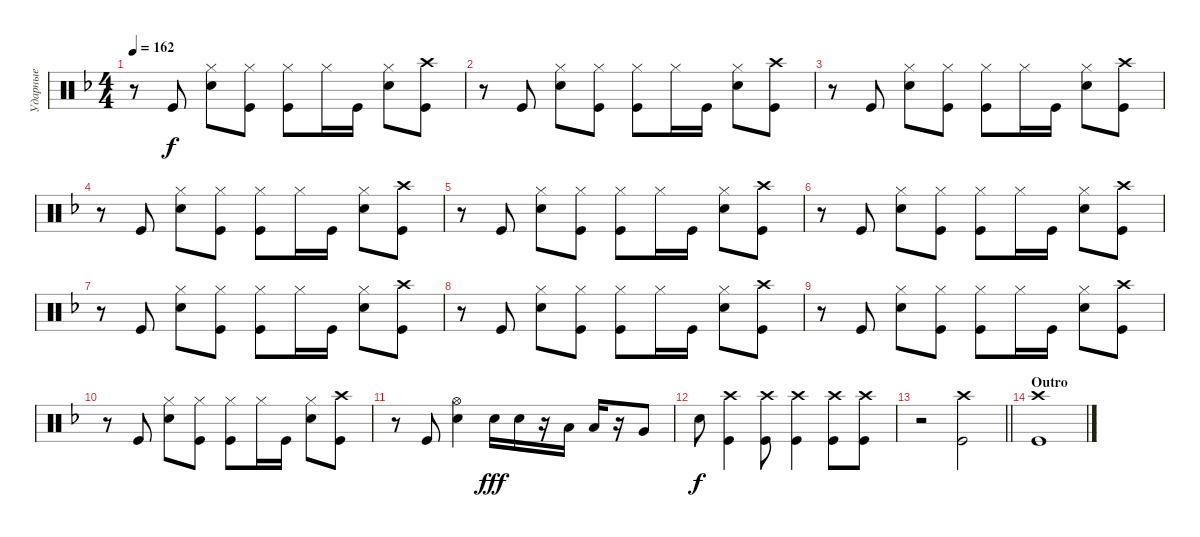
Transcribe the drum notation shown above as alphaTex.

\track ("Ударные" "Ударные") {instrument percussion}
\staff {score}
\articulation defaults
\ts (4 4)
\tempo 162
\clef neutral
\ks dminor
r.8{dy f} "Kick (hit)".8 ("Hi-Hat (closed)" "Snare (hit) 2").8 ("Hi-Hat (closed)" "Kick (hit)").8 ("Hi-Hat (closed)" "Kick (hit)").8 "Hi-Hat (closed)".16 "Kick (hit)".16 ("Hi-Hat (closed)" "Snare (hit) 2").8 ("Crash high (hit)" "Kick (hit)").8 |
r.8 "Kick (hit)".8 ("Hi-Hat (closed)" "Snare (hit) 2").8 ("Hi-Hat (closed)" "Kick (hit)").8 ("Hi-Hat (closed)" "Kick (hit)").8 "Hi-Hat (closed)".16 "Kick (hit)".16 ("Hi-Hat (closed)" "Snare (hit) 2").8 ("Crash high (hit)" "Kick (hit)").8 |
r.8 "Kick (hit)".8 ("Hi-Hat (closed)" "Snare (hit) 2").8 ("Hi-Hat (closed)" "Kick (hit)").8 ("Hi-Hat (closed)" "Kick (hit)").8 "Hi-Hat (closed)".16 "Kick (hit)".16 ("Hi-Hat (closed)" "Snare (hit) 2").8 ("Crash high (hit)" "Kick (hit)").8 |
r.8 "Kick (hit)".8 ("Hi-Hat (closed)" "Snare (hit) 2").8 ("Hi-Hat (closed)" "Kick (hit)").8 ("Hi-Hat (closed)" "Kick (hit)").8 "Hi-Hat (closed)".16 "Kick (hit)".16 ("Hi-Hat (closed)" "Snare (hit) 2").8 ("Crash high (hit)" "Kick (hit)").8 |
r.8 "Kick (hit)".8 ("Hi-Hat (closed)" "Snare (hit) 2").8 ("Hi-Hat (closed)" "Kick (hit)").8 ("Hi-Hat (closed)" "Kick (hit)").8 "Hi-Hat (closed)".16 "Kick (hit)".16 ("Hi-Hat (closed)" "Snare (hit) 2").8 ("Crash high (hit)" "Kick (hit)").8 |
r.8 "Kick (hit)".8 ("Hi-Hat (closed)" "Snare (hit) 2").8 ("Hi-Hat (closed)" "Kick (hit)").8 ("Hi-Hat (closed)" "Kick (hit)").8 "Hi-Hat (closed)".16 "Kick (hit)".16 ("Hi-Hat (closed)" "Snare (hit) 2").8 ("Crash high (hit)" "Kick (hit)").8 |
r.8 "Kick (hit)".8 ("Hi-Hat (closed)" "Snare (hit) 2").8 ("Hi-Hat (closed)" "Kick (hit)").8 ("Hi-Hat (closed)" "Kick (hit)").8 "Hi-Hat (closed)".16 "Kick (hit)".16 ("Hi-Hat (closed)" "Snare (hit) 2").8 ("Crash high (hit)" "Kick (hit)").8 |
r.8 "Kick (hit)".8 ("Hi-Hat (closed)" "Snare (hit) 2").8 ("Hi-Hat (closed)" "Kick (hit)").8 ("Hi-Hat (closed)" "Kick (hit)").8 "Hi-Hat (closed)".16 "Kick (hit)".16 ("Hi-Hat (closed)" "Snare (hit) 2").8 ("Crash high (hit)" "Kick (hit)").8 |
r.8 "Kick (hit)".8 ("Hi-Hat (closed)" "Snare (hit) 2").8 ("Hi-Hat (closed)" "Kick (hit)").8 ("Hi-Hat (closed)" "Kick (hit)").8 "Hi-Hat (closed)".16 "Kick (hit)".16 ("Hi-Hat (closed)" "Snare (hit) 2").8 ("Crash high (hit)" "Kick (hit)").8 |
r.8 "Kick (hit)".8 ("Hi-Hat (closed)" "Snare (hit) 2").8 ("Hi-Hat (closed)" "Kick (hit)").8 ("Hi-Hat (closed)" "Kick (hit)").8 "Hi-Hat (closed)".16 "Kick (hit)".16 ("Hi-Hat (closed)" "Snare (hit) 2").8 ("Crash high (hit)" "Kick (hit)").8 |
r.8 "Kick (hit)".8 ("Hi-Hat (open)" "Snare (hit) 2").4 "Snare (hit) 2".16{dy fff} "Snare (hit) 2".16 r.16 "Low Tom (hit)".16 "Low Tom (hit)".16 r.16 "Very Low Tom (hit)".8 |
"Snare (hit) 2".8{dy f} ("Kick (hit)" "Crash high (hit)").4 ("Kick (hit)" "Crash high (hit)").8 ("Kick (hit)" "Crash high (hit)").4 ("Kick (hit)" "Crash high (hit)").8 ("Kick (hit)" "Crash high (hit)").8 |
\barLineRight lightlight
r.2 ("Kick (hit)" "Crash high (hit)").2 |
\section ("" "Outro")
("Kick (hit)" "Crash high (hit)").1
